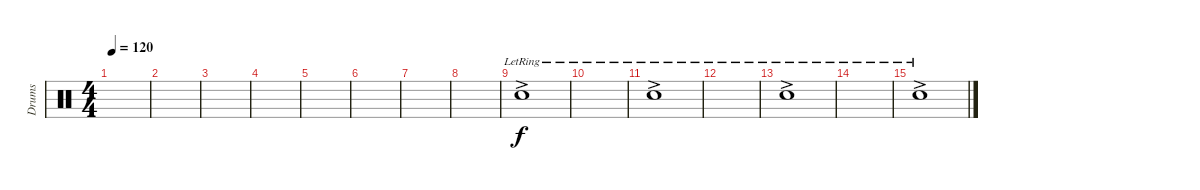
\track ("Drums" "Drums") {instrument percussion}
\staff {score}
\articulation defaults
\ts (4 4)
\tempo 120
\clef neutral
\ks c
|
|
|
|
|
|
|
|
"Electric Snare (hit)"{ac lr}.1 |
|
"Electric Snare (hit)"{ac lr}.1 |
|
"Electric Snare (hit)"{ac lr}.1 |
|
"Electric Snare (hit)"{ac lr}.1
